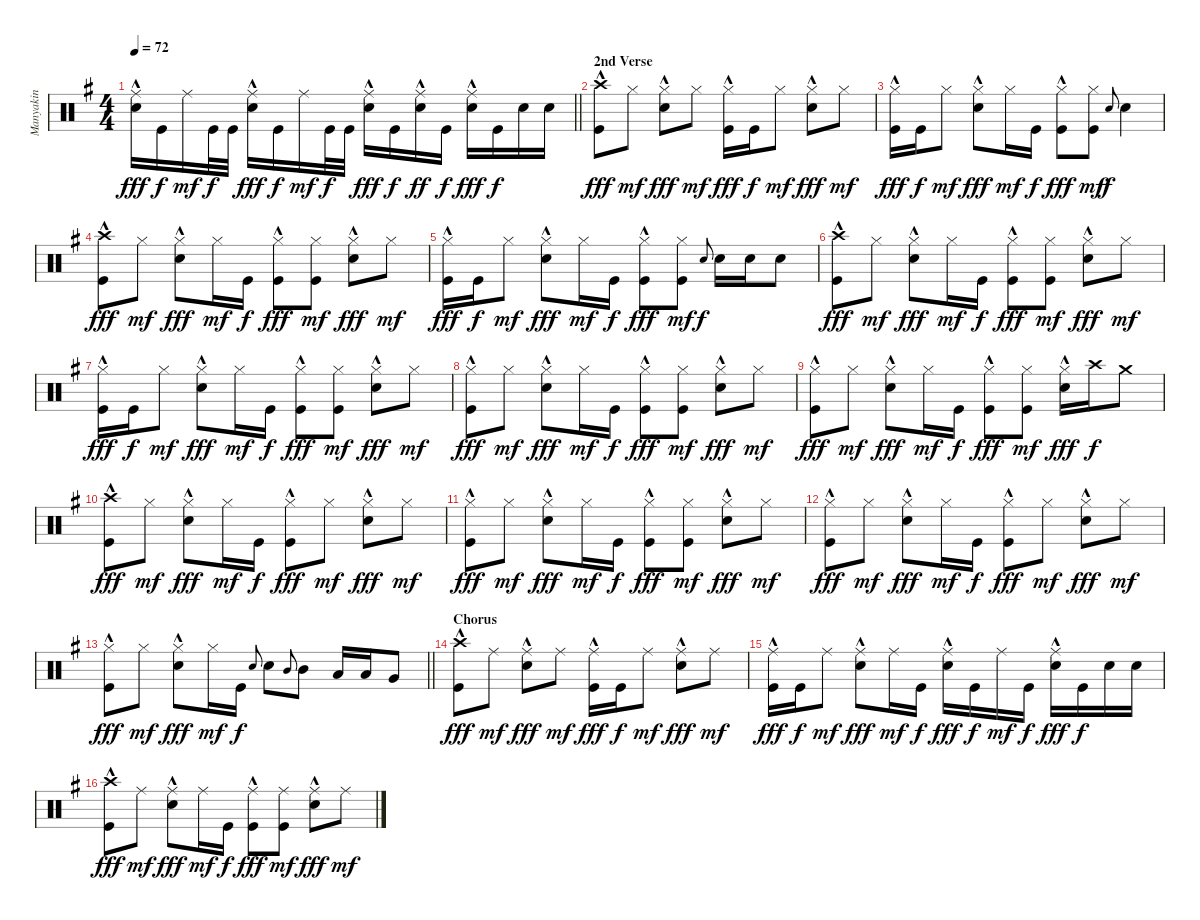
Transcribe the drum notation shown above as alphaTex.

\track ("Manyakin" "Manyakin") {instrument percussion}
\staff {score}
\articulation defaults
\ts (4 4)
\tempo 72
\clef neutral
\barLineRight lightlight
\ks eminor
("Ride (middle)"{hac} "Snare (hit) 2").16{dy fff beam Down} "Kick (hit)".16{dy f beam Down} "Ride (middle)".16{dy mf beam Down} "Kick (hit)".32{dy f beam Down} "Kick (hit)".32{beam Down} ("Ride (middle)"{hac} "Snare (hit) 2").16{dy fff beam Down} "Kick (hit)".16{dy f beam Down} "Ride (middle)".16{dy mf beam Down} "Kick (hit)".32{dy f beam Down} "Kick (hit)".32{beam Down} ("Ride (middle)"{hac} "Snare (hit) 2").16{dy fff beam Down} "Kick (hit)".16{dy f beam Down} ("Ride (middle)"{hac} "Snare (hit) 2").16{dy ff beam Down} "Kick (hit)".16{dy f beam Down} ("Ride (middle)"{hac} "Snare (hit) 2").16{dy fff beam Down} "Kick (hit)".16{dy f beam Down} "Snare (hit) 2".16{beam Down} "Snare (hit) 2".16{beam Down} |
\section ("" "2nd Verse")
("Crash high (hit)"{hac} "Kick (hit)").8{dy fff beam Down} "Hi-Hat (closed)".8{dy mf beam Down} ("Hi-Hat (closed)"{hac} "Snare (hit) 2").8{dy fff beam Down} "Hi-Hat (closed)".8{dy mf beam Down} ("Hi-Hat (closed)"{hac} "Kick (hit)").16{dy fff beam Down} "Kick (hit)".16{dy f beam Down} "Hi-Hat (closed)".8{dy mf beam Down} ("Hi-Hat (closed)"{hac} "Snare (hit) 2").8{dy fff beam Down} "Hi-Hat (closed)".8{dy mf beam Down} |
("Hi-Hat (closed)"{hac} "Kick (hit)").16{dy fff beam Down} "Kick (hit)".16{dy f beam Down} "Hi-Hat (closed)".8{dy mf beam Down} ("Hi-Hat (closed)"{hac} "Snare (hit) 2").8{dy fff beam Down} "Hi-Hat (closed)".16{dy mf beam Down} "Kick (hit)".16{dy f beam Down} ("Hi-Hat (closed)"{hac} "Kick (hit)").8{dy fff beam Down} ("Hi-Hat (closed)" "Kick (hit)").8{dy mf beam Down} "Snare (hit) 2".8{gr onbeat dy f} "Snare (hit) 2".4{beam Down} |
("Crash high (hit)"{hac} "Kick (hit)").8{dy fff beam Down} "Hi-Hat (closed)".8{dy mf beam Down} ("Hi-Hat (closed)"{hac} "Snare (hit) 2").8{dy fff beam Down} "Hi-Hat (closed)".16{dy mf beam Down} "Kick (hit)".16{dy f beam Down} ("Hi-Hat (closed)"{hac} "Kick (hit)").8{dy fff beam Down} ("Hi-Hat (closed)" "Kick (hit)").8{dy mf beam Down} ("Hi-Hat (closed)"{hac} "Snare (hit) 2").8{dy fff beam Down} "Hi-Hat (closed)".8{dy mf beam Down} |
("Hi-Hat (closed)"{hac} "Kick (hit)").16{dy fff beam Down} "Kick (hit)".16{dy f beam Down} "Hi-Hat (closed)".8{dy mf beam Down} ("Hi-Hat (closed)"{hac} "Snare (hit) 2").8{dy fff beam Down} "Hi-Hat (closed)".16{dy mf beam Down} "Kick (hit)".16{dy f beam Down} ("Hi-Hat (closed)"{hac} "Kick (hit)").8{dy fff beam Down} ("Hi-Hat (closed)" "Kick (hit)").8{dy mf beam Down} "Snare (hit) 2".8{gr onbeat dy f} "Snare (hit) 2".16{beam Down} "Snare (hit) 2".16{beam Down} "Snare (hit) 2".8{beam Down} |
("Crash high (hit)"{hac} "Kick (hit)").8{dy fff beam Down} "Hi-Hat (closed)".8{dy mf beam Down} ("Hi-Hat (closed)"{hac} "Snare (hit) 2").8{dy fff beam Down} "Hi-Hat (closed)".16{dy mf beam Down} "Kick (hit)".16{dy f beam Down} ("Hi-Hat (closed)"{hac} "Kick (hit)").8{dy fff beam Down} ("Hi-Hat (closed)" "Kick (hit)").8{dy mf beam Down} ("Hi-Hat (closed)"{hac} "Snare (hit) 2").8{dy fff beam Down} "Hi-Hat (closed)".8{dy mf beam Down} |
("Hi-Hat (closed)"{hac} "Kick (hit)").16{dy fff beam Down} "Kick (hit)".16{dy f beam Down} "Hi-Hat (closed)".8{dy mf beam Down} ("Hi-Hat (closed)"{hac} "Snare (hit) 2").8{dy fff beam Down} "Hi-Hat (closed)".16{dy mf beam Down} "Kick (hit)".16{dy f beam Down} ("Hi-Hat (closed)"{hac} "Kick (hit)").8{dy fff beam Down} ("Hi-Hat (closed)" "Kick (hit)").8{dy mf beam Down} ("Hi-Hat (closed)"{hac} "Snare (hit) 2").8{dy fff beam Down} "Hi-Hat (closed)".8{dy mf beam Down} |
("Hi-Hat (closed)"{hac} "Kick (hit)").8{dy fff beam Down} "Hi-Hat (closed)".8{dy mf beam Down} ("Hi-Hat (closed)"{hac} "Snare (hit) 2").8{dy fff beam Down} "Hi-Hat (closed)".16{dy mf beam Down} "Kick (hit)".16{dy f beam Down} ("Hi-Hat (closed)"{hac} "Kick (hit)").8{dy fff beam Down} ("Hi-Hat (closed)" "Kick (hit)").8{dy mf beam Down} ("Hi-Hat (closed)"{hac} "Snare (hit) 2").8{dy fff beam Down} "Hi-Hat (closed)".8{dy mf beam Down} |
("Hi-Hat (closed)"{hac} "Kick (hit)").8{dy fff beam Down} "Hi-Hat (closed)".8{dy mf beam Down} ("Hi-Hat (closed)"{hac} "Snare (hit) 2").8{dy fff beam Down} "Hi-Hat (closed)".16{dy mf beam Down} "Kick (hit)".16{dy f beam Down} ("Hi-Hat (closed)"{hac} "Kick (hit)").8{dy fff beam Down} ("Hi-Hat (closed)" "Kick (hit)").8{dy mf beam Down} ("Hi-Hat (closed)"{hac} "Snare (hit) 2").16{dy fff beam Down} "Crash high (hit)".16{dy f beam Down} "Crash medium (hit)".8{beam Down} |
("Crash high (hit)"{hac} "Kick (hit)").8{dy fff beam Down} "Hi-Hat (closed)".8{dy mf beam Down} ("Hi-Hat (closed)"{hac} "Snare (hit) 2").8{dy fff beam Down} "Hi-Hat (closed)".16{dy mf beam Down} "Kick (hit)".16{dy f beam Down} ("Hi-Hat (closed)"{hac} "Kick (hit)").8{dy fff beam Down} "Hi-Hat (closed)".8{dy mf beam Down} ("Hi-Hat (closed)"{hac} "Snare (hit) 2").8{dy fff beam Down} "Hi-Hat (closed)".8{dy mf beam Down} |
("Hi-Hat (closed)"{hac} "Kick (hit)").8{dy fff beam Down} "Hi-Hat (closed)".8{dy mf beam Down} ("Hi-Hat (closed)"{hac} "Snare (hit) 2").8{dy fff beam Down} "Hi-Hat (closed)".16{dy mf beam Down} "Kick (hit)".16{dy f beam Down} ("Hi-Hat (closed)"{hac} "Kick (hit)").8{dy fff beam Down} ("Hi-Hat (closed)" "Kick (hit)").8{dy mf beam Down} ("Hi-Hat (closed)"{hac} "Snare (hit) 2").8{dy fff beam Down} "Hi-Hat (closed)".8{dy mf beam Down} |
("Hi-Hat (closed)"{hac} "Kick (hit)").8{dy fff beam Down} "Hi-Hat (closed)".8{dy mf beam Down} ("Hi-Hat (closed)"{hac} "Snare (hit) 2").8{dy fff beam Down} "Hi-Hat (closed)".16{dy mf beam Down} "Kick (hit)".16{dy f beam Down} ("Hi-Hat (closed)"{hac} "Kick (hit)").8{dy fff beam Down} "Hi-Hat (closed)".8{dy mf beam Down} ("Hi-Hat (closed)"{hac} "Snare (hit) 2").8{dy fff beam Down} "Hi-Hat (closed)".8{dy mf beam Down} |
\barLineRight lightlight
("Hi-Hat (closed)"{hac} "Kick (hit)").8{dy fff beam Down} "Hi-Hat (closed)".8{dy mf beam Down} ("Hi-Hat (closed)"{hac} "Snare (hit) 2").8{dy fff beam Down} "Hi-Hat (closed)".16{dy mf beam Down} "Kick (hit)".16{dy f beam Down} "Snare (hit) 2".8{gr onbeat} "Snare (hit) 2".8{beam Down} "Mid Tom (hit)".8{gr onbeat} "Mid Tom (hit)".8{beam Down} "Low Tom (hit)".16{beam Up} "Low Tom (hit)".16{beam Up} "Very Low Tom (hit)".8{beam Up} |
\section ("" "Chorus ")
("Crash high (hit)"{hac} "Kick (hit)").8{dy fff beam Down} "Ride (middle)".8{dy mf beam Down} ("Ride (middle)"{hac} "Snare (hit) 2").8{dy fff beam Down} "Ride (middle)".8{dy mf beam Down} ("Ride (middle)"{hac} "Kick (hit)").16{dy fff beam Down} "Kick (hit)".16{dy f beam Down} "Ride (middle)".8{dy mf beam Down} ("Ride (middle)"{hac} "Snare (hit) 2").8{dy fff beam Down} "Ride (middle)".8{dy mf beam Down} |
("Ride (middle)"{hac} "Kick (hit)").16{dy fff} "Kick (hit)".16{dy f} "Ride (middle)".8{dy mf} ("Ride (middle)"{hac} "Snare (hit) 2").8{dy fff beam Down} "Ride (middle)".16{dy mf beam Down} "Kick (hit)".16{dy f beam Down} ("Ride (middle)"{hac} "Snare (hit) 2").16{dy fff beam Down} "Kick (hit)".16{dy f beam Down} "Ride (middle)".16{dy mf beam Down} "Kick (hit)".16{dy f beam Down} ("Ride (middle)"{hac} "Snare (hit) 2").16{dy fff beam Down} "Kick (hit)".16{dy f beam Down} "Snare (hit) 2".16{beam Down} "Snare (hit) 2".16{beam Down} |
("Crash high (hit)"{hac} "Kick (hit)").8{dy fff} "Ride (middle)".8{dy mf} ("Ride (middle)"{hac} "Snare (hit) 2").8{dy fff} "Ride (middle)".16{dy mf} "Kick (hit)".16{dy f} ("Ride (middle)"{hac} "Kick (hit)").8{dy fff} ("Ride (middle)" "Kick (hit)").8{dy mf} ("Ride (middle)"{hac} "Snare (hit) 2").8{dy fff} "Ride (middle)".8{dy mf}
